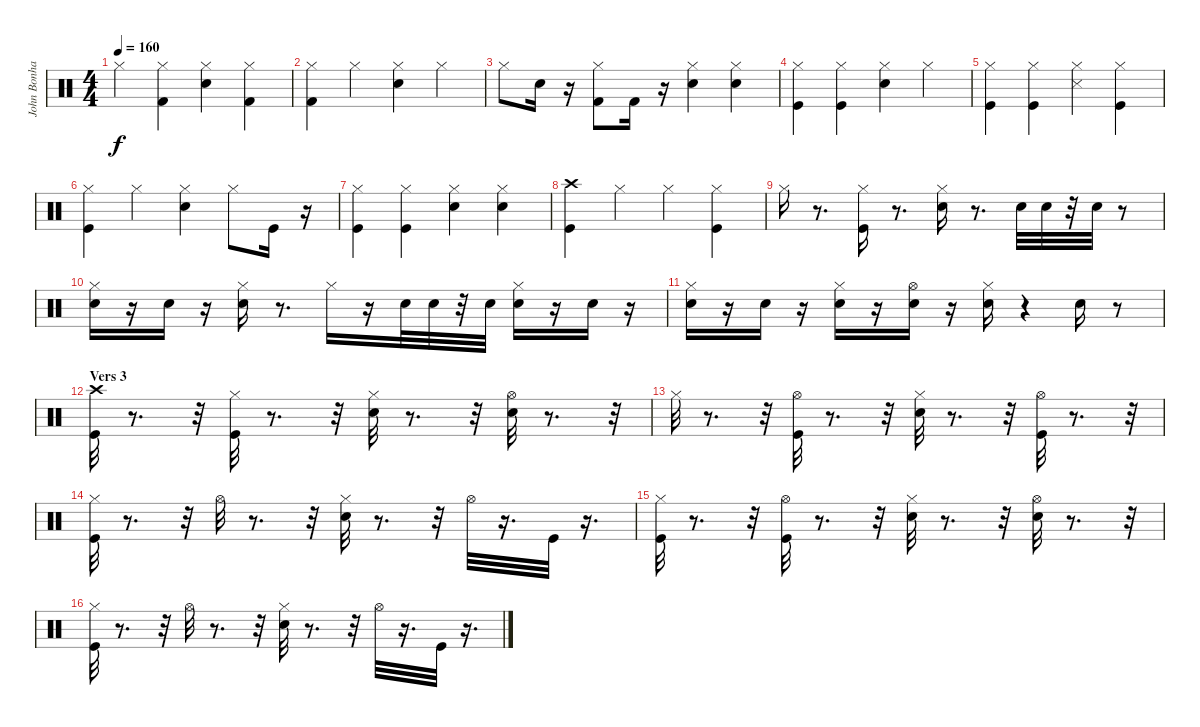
\track ("John Bonham" "John Bonha") {instrument percussion}
\staff {score}
\articulation defaults
\ts (4 4)
\tempo 160
\clef neutral
\ks c "Hi-Hat (closed)".4{dy f}
("Hi-Hat (closed)" "Kick (hit) 2").4 ("Hi-Hat (closed)" "Snare (hit) 2").4 ("Hi-Hat (closed)" "Kick (hit) 2").4 |
("Kick (hit) 2" "Hi-Hat (closed)").4 "Hi-Hat (closed)".4 ("Snare (hit) 2" "Hi-Hat (closed)").4 "Hi-Hat (closed)".4 |
"Hi-Hat (closed)".8 "Snare (hit) 2".16 r.16 ("Kick (hit) 2" "Hi-Hat (closed)").8 "Kick (hit) 2".16 r.16 ("Snare (hit) 2" "Hi-Hat (closed)").4 ("Snare (hit) 2" "Hi-Hat (closed)").4 |
("Kick (hit)" "Hi-Hat (closed)").4 ("Kick (hit)" "Hi-Hat (closed)").4 ("Snare (hit) 2" "Hi-Hat (closed)").4 "Hi-Hat (closed)".4 |
("Kick (hit)" "Hi-Hat (closed)").4 ("Kick (hit)" "Hi-Hat (closed)").4 ("Snare (side stick) 3" "Hi-Hat (closed)").4 ("Kick (hit)" "Hi-Hat (closed)").4 |
("Kick (hit)" "Hi-Hat (closed)").4 "Hi-Hat (closed)".4 ("Snare (hit) 2" "Hi-Hat (closed)").4 "Hi-Hat (closed)".8 "Kick (hit)".16 r.16 |
("Kick (hit)" "Hi-Hat (closed)").4 ("Kick (hit)" "Hi-Hat (closed)").4 ("Snare (hit) 2" "Hi-Hat (closed)").4 ("Snare (hit) 2" "Hi-Hat (closed)").4 |
("Kick (hit)" "Crash high (hit)").4 "Hi-Hat (closed)".4 "Hi-Hat (closed)".4 ("Kick (hit)" "Hi-Hat (closed)").4 |
"Hi-Hat (closed)".16 r.8{d} ("Kick (hit)" "Hi-Hat (closed)").16 r.8{d} ("Snare (hit) 2" "Hi-Hat (closed)").16 r.8{d} "Snare (hit) 2".32 "Snare (hit) 2".32 r.32 "Snare (hit) 2".32 r.8 |
("Hi-Hat (closed)" "Snare (hit) 2").16 r.16 "Snare (hit) 2".16 r.16 ("Hi-Hat (closed)" "Snare (hit) 2").16 r.8{d} "Hi-Hat (closed)".16 r.16 "Snare (hit) 2".32 "Snare (hit) 2".32 r.32 "Snare (hit) 2".32 ("Snare (hit) 2" "Hi-Hat (closed)").16 r.16 "Snare (hit) 2".16 r.16 |
("Hi-Hat (closed)" "Snare (hit) 2").16 r.16 "Snare (hit) 2".16 r.16 ("Hi-Hat (closed)" "Snare (hit) 2").16 r.16 ("Hi-Hat (open)" "Snare (hit) 2").16 r.16 ("Hi-Hat (closed)" "Snare (hit) 2").16 r.4 "Snare (hit) 2".16 r.8 |
\section ("" "Vers 3")
("Kick (hit)" "Crash high (hit)").32 r.8{d} r.32 ("Hi-Hat (closed)" "Kick (hit)").32 r.8{d} r.32 ("Hi-Hat (closed)" "Snare (hit) 2").32 r.8{d} r.32 ("Snare (hit) 2" "Hi-Hat (open)").32 r.8{d} r.32 |
"Hi-Hat (closed)".32 r.8{d} r.32 ("Kick (hit)" "Hi-Hat (open)").32 r.8{d} r.32 ("Snare (hit) 2" "Hi-Hat (closed)").32 r.8{d} r.32 ("Kick (hit)" "Hi-Hat (open)").32 r.8{d} r.32 |
("Kick (hit)" "Hi-Hat (closed)").32 r.8{d} r.32 "Hi-Hat (open)".32 r.8{d} r.32 ("Snare (hit) 2" "Hi-Hat (closed)").32 r.8{d} r.32 "Hi-Hat (open)".32 r.16{d} "Kick (hit)".32 r.16{d} |
("Hi-Hat (closed)" "Kick (hit)").32 r.8{d} r.32 ("Hi-Hat (open)" "Kick (hit)").32 r.8{d} r.32 ("Hi-Hat (closed)" "Snare (hit) 2").32 r.8{d} r.32 ("Hi-Hat (open)" "Snare (hit) 2").32 r.8{d} r.32 |
("Hi-Hat (closed)" "Kick (hit)").32 r.8{d} r.32 "Hi-Hat (open)".32 r.8{d} r.32 ("Snare (hit) 2" "Hi-Hat (closed)").32 r.8{d} r.32 "Hi-Hat (open)".32 r.16{d} "Kick (hit)".32 r.16{d}
